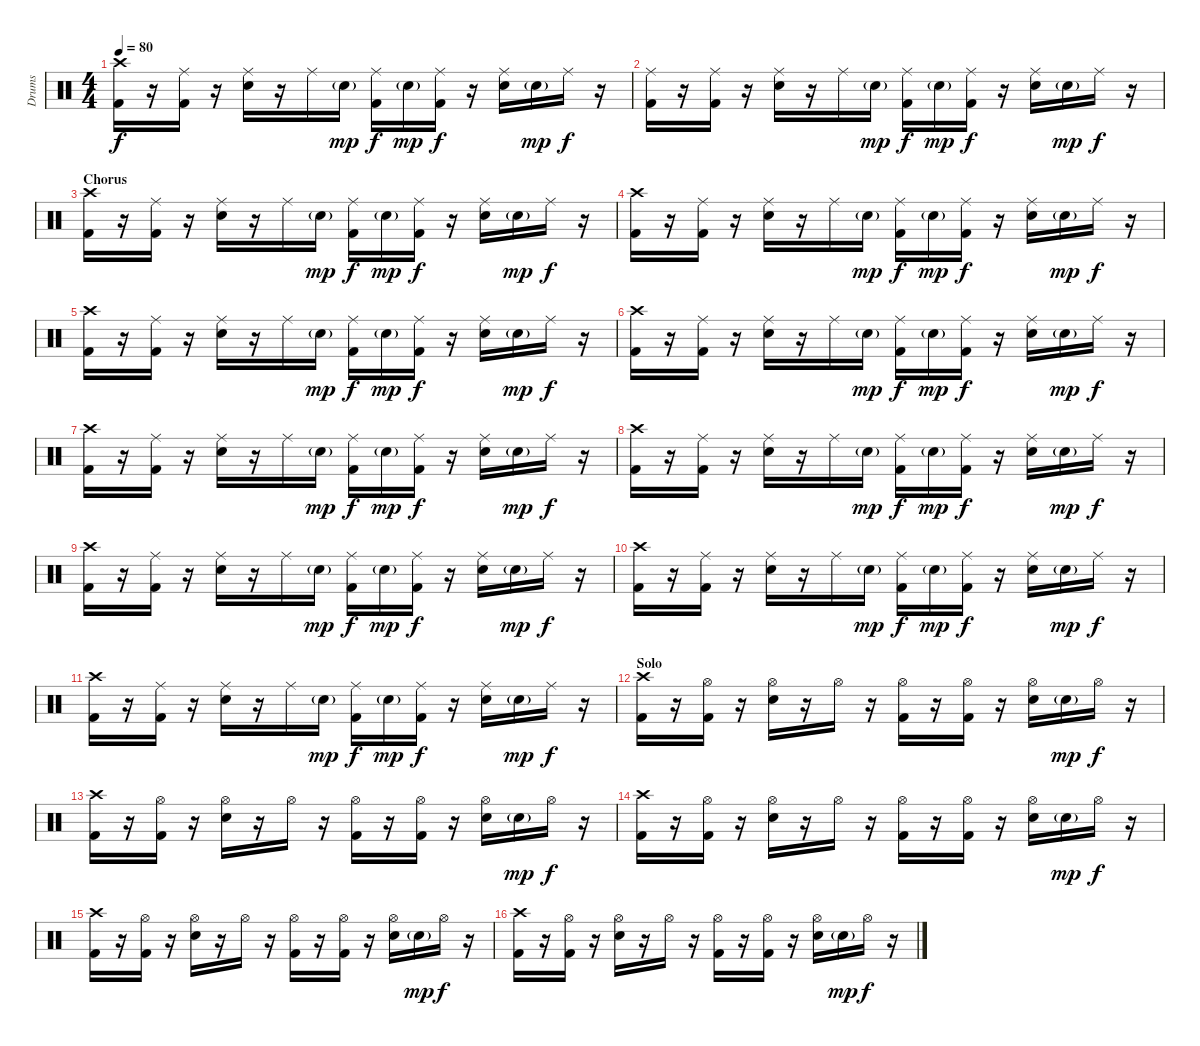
\track ("Drums" "Drums") {instrument percussion}
\staff {score}
\articulation defaults
\ts (4 4)
\tempo 80
\clef neutral
\ks c
("Crash high (hit)" "Kick (hit) 2").16{dy f} r.16 ("Ride (middle)" "Kick (hit) 2").16 r.16 ("Ride (middle)" "Electric Snare (hit)").16 r.16 "Ride (middle)".16 "Electric Snare (hit)"{g}.16{dy mp} ("Ride (middle)" "Kick (hit) 2").16{dy f} "Electric Snare (hit)"{g}.16{dy mp} ("Ride (middle)" "Kick (hit) 2").16{dy f} r.16 ("Ride (middle)" "Electric Snare (hit)").16 "Electric Snare (hit)"{g}.16{dy mp} "Ride (middle)".16{dy f} r.16 |
("Ride (middle)" "Kick (hit) 2").16 r.16 ("Ride (middle)" "Kick (hit) 2").16 r.16 ("Ride (middle)" "Electric Snare (hit)").16 r.16 "Ride (middle)".16 "Electric Snare (hit)"{g}.16{dy mp} ("Ride (middle)" "Kick (hit) 2").16{dy f} "Electric Snare (hit)"{g}.16{dy mp} ("Ride (middle)" "Kick (hit) 2").16{dy f} r.16 ("Ride (middle)" "Electric Snare (hit)").16 "Electric Snare (hit)"{g}.16{dy mp} "Ride (middle)".16{dy f} r.16 |
\section ("" "Chorus")
("Crash high (hit)" "Kick (hit) 2").16 r.16 ("Ride (middle)" "Kick (hit) 2").16 r.16 ("Ride (middle)" "Electric Snare (hit)").16 r.16 "Ride (middle)".16 "Electric Snare (hit)"{g}.16{dy mp} ("Ride (middle)" "Kick (hit) 2").16{dy f} "Electric Snare (hit)"{g}.16{dy mp} ("Ride (middle)" "Kick (hit) 2").16{dy f} r.16 ("Ride (middle)" "Electric Snare (hit)").16 "Electric Snare (hit)"{g}.16{dy mp} "Ride (middle)".16{dy f} r.16 |
("Crash high (hit)" "Kick (hit) 2").16 r.16 ("Ride (middle)" "Kick (hit) 2").16 r.16 ("Ride (middle)" "Electric Snare (hit)").16 r.16 "Ride (middle)".16 "Electric Snare (hit)"{g}.16{dy mp} ("Ride (middle)" "Kick (hit) 2").16{dy f} "Electric Snare (hit)"{g}.16{dy mp} ("Ride (middle)" "Kick (hit) 2").16{dy f} r.16 ("Ride (middle)" "Electric Snare (hit)").16 "Electric Snare (hit)"{g}.16{dy mp} "Ride (middle)".16{dy f} r.16 |
("Crash high (hit)" "Kick (hit) 2").16 r.16 ("Ride (middle)" "Kick (hit) 2").16 r.16 ("Ride (middle)" "Electric Snare (hit)").16 r.16 "Ride (middle)".16 "Electric Snare (hit)"{g}.16{dy mp} ("Ride (middle)" "Kick (hit) 2").16{dy f} "Electric Snare (hit)"{g}.16{dy mp} ("Ride (middle)" "Kick (hit) 2").16{dy f} r.16 ("Ride (middle)" "Electric Snare (hit)").16 "Electric Snare (hit)"{g}.16{dy mp} "Ride (middle)".16{dy f} r.16 |
("Crash high (hit)" "Kick (hit) 2").16 r.16 ("Ride (middle)" "Kick (hit) 2").16 r.16 ("Ride (middle)" "Electric Snare (hit)").16 r.16 "Ride (middle)".16 "Electric Snare (hit)"{g}.16{dy mp} ("Ride (middle)" "Kick (hit) 2").16{dy f} "Electric Snare (hit)"{g}.16{dy mp} ("Ride (middle)" "Kick (hit) 2").16{dy f} r.16 ("Ride (middle)" "Electric Snare (hit)").16 "Electric Snare (hit)"{g}.16{dy mp} "Ride (middle)".16{dy f} r.16 |
("Crash high (hit)" "Kick (hit) 2").16 r.16 ("Ride (middle)" "Kick (hit) 2").16 r.16 ("Ride (middle)" "Electric Snare (hit)").16 r.16 "Ride (middle)".16 "Electric Snare (hit)"{g}.16{dy mp} ("Ride (middle)" "Kick (hit) 2").16{dy f} "Electric Snare (hit)"{g}.16{dy mp} ("Ride (middle)" "Kick (hit) 2").16{dy f} r.16 ("Ride (middle)" "Electric Snare (hit)").16 "Electric Snare (hit)"{g}.16{dy mp} "Ride (middle)".16{dy f} r.16 |
("Crash high (hit)" "Kick (hit) 2").16 r.16 ("Ride (middle)" "Kick (hit) 2").16 r.16 ("Ride (middle)" "Electric Snare (hit)").16 r.16 "Ride (middle)".16 "Electric Snare (hit)"{g}.16{dy mp} ("Ride (middle)" "Kick (hit) 2").16{dy f} "Electric Snare (hit)"{g}.16{dy mp} ("Ride (middle)" "Kick (hit) 2").16{dy f} r.16 ("Ride (middle)" "Electric Snare (hit)").16 "Electric Snare (hit)"{g}.16{dy mp} "Ride (middle)".16{dy f} r.16 |
("Crash high (hit)" "Kick (hit) 2").16 r.16 ("Ride (middle)" "Kick (hit) 2").16 r.16 ("Ride (middle)" "Electric Snare (hit)").16 r.16 "Ride (middle)".16 "Electric Snare (hit)"{g}.16{dy mp} ("Ride (middle)" "Kick (hit) 2").16{dy f} "Electric Snare (hit)"{g}.16{dy mp} ("Ride (middle)" "Kick (hit) 2").16{dy f} r.16 ("Ride (middle)" "Electric Snare (hit)").16 "Electric Snare (hit)"{g}.16{dy mp} "Ride (middle)".16{dy f} r.16 |
("Crash high (hit)" "Kick (hit) 2").16 r.16 ("Ride (middle)" "Kick (hit) 2").16 r.16 ("Ride (middle)" "Electric Snare (hit)").16 r.16 "Ride (middle)".16 "Electric Snare (hit)"{g}.16{dy mp} ("Ride (middle)" "Kick (hit) 2").16{dy f} "Electric Snare (hit)"{g}.16{dy mp} ("Ride (middle)" "Kick (hit) 2").16{dy f} r.16 ("Ride (middle)" "Electric Snare (hit)").16 "Electric Snare (hit)"{g}.16{dy mp} "Ride (middle)".16{dy f} r.16 |
("Crash high (hit)" "Kick (hit) 2").16 r.16 ("Ride (middle)" "Kick (hit) 2").16 r.16 ("Ride (middle)" "Electric Snare (hit)").16 r.16 "Ride (middle)".16 "Electric Snare (hit)"{g}.16{dy mp} ("Ride (middle)" "Kick (hit) 2").16{dy f} "Electric Snare (hit)"{g}.16{dy mp} ("Ride (middle)" "Kick (hit) 2").16{dy f} r.16 ("Ride (middle)" "Electric Snare (hit)").16 "Electric Snare (hit)"{g}.16{dy mp} "Ride (middle)".16{dy f} r.16 |
\section ("" "Solo")
("Crash high (hit)" "Kick (hit) 2").16 r.16 ("Hi-Hat (open)" "Kick (hit) 2").16 r.16 ("Hi-Hat (open)" "Electric Snare (hit)").16 r.16 "Hi-Hat (open)".16 r.16 ("Hi-Hat (open)" "Kick (hit) 2").16 r.16 ("Hi-Hat (open)" "Kick (hit) 2").16 r.16 ("Hi-Hat (open)" "Electric Snare (hit)").16 "Electric Snare (hit)"{g}.16{dy mp} "Hi-Hat (open)".16{dy f} r.16 |
("Crash high (hit)" "Kick (hit) 2").16 r.16 ("Hi-Hat (open)" "Kick (hit) 2").16 r.16 ("Hi-Hat (open)" "Electric Snare (hit)").16 r.16 "Hi-Hat (open)".16 r.16 ("Hi-Hat (open)" "Kick (hit) 2").16 r.16 ("Hi-Hat (open)" "Kick (hit) 2").16 r.16 ("Hi-Hat (open)" "Electric Snare (hit)").16 "Electric Snare (hit)"{g}.16{dy mp} "Hi-Hat (open)".16{dy f} r.16 |
("Crash high (hit)" "Kick (hit) 2").16 r.16 ("Hi-Hat (open)" "Kick (hit) 2").16 r.16 ("Hi-Hat (open)" "Electric Snare (hit)").16 r.16 "Hi-Hat (open)".16 r.16 ("Hi-Hat (open)" "Kick (hit) 2").16 r.16 ("Hi-Hat (open)" "Kick (hit) 2").16 r.16 ("Hi-Hat (open)" "Electric Snare (hit)").16 "Electric Snare (hit)"{g}.16{dy mp} "Hi-Hat (open)".16{dy f} r.16 |
("Crash high (hit)" "Kick (hit) 2").16 r.16 ("Hi-Hat (open)" "Kick (hit) 2").16 r.16 ("Hi-Hat (open)" "Electric Snare (hit)").16 r.16 "Hi-Hat (open)".16 r.16 ("Hi-Hat (open)" "Kick (hit) 2").16 r.16 ("Hi-Hat (open)" "Kick (hit) 2").16 r.16 ("Hi-Hat (open)" "Electric Snare (hit)").16 "Electric Snare (hit)"{g}.16{dy mp} "Hi-Hat (open)".16{dy f} r.16 |
("Crash high (hit)" "Kick (hit) 2").16 r.16 ("Hi-Hat (open)" "Kick (hit) 2").16 r.16 ("Hi-Hat (open)" "Electric Snare (hit)").16 r.16 "Hi-Hat (open)".16 r.16 ("Hi-Hat (open)" "Kick (hit) 2").16 r.16 ("Hi-Hat (open)" "Kick (hit) 2").16 r.16 ("Hi-Hat (open)" "Electric Snare (hit)").16 "Electric Snare (hit)"{g}.16{dy mp} "Hi-Hat (open)".16{dy f} r.16
